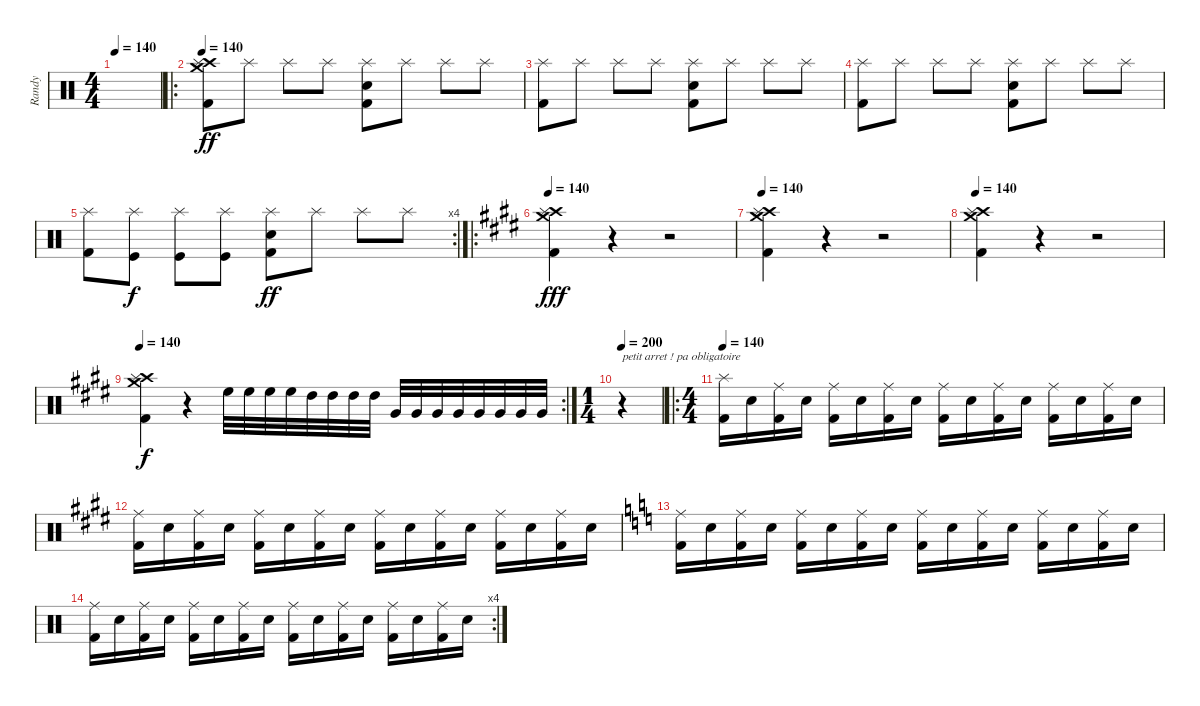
\track ("Randy" "Randy") {instrument percussion}
\staff {score}
\articulation defaults
\ts (4 4)
\tempo 140
\clef neutral
\ks c
|
\ro
\tempo 140
("Kick (hit) 2" "Crash high (hit)" "Crash medium (hit)" "Splash (hit)").8{dy ff} "Splash (hit)".8 "Splash (hit)".8 "Splash (hit)".8 ("Kick (hit) 2" "Electric Snare (hit)" "Splash (hit)").8 "Splash (hit)".8 "Splash (hit)".8 "Splash (hit)".8 |
("Kick (hit) 2" "Splash (hit)").8 "Splash (hit)".8 "Splash (hit)".8 "Splash (hit)".8 ("Kick (hit) 2" "Electric Snare (hit)" "Splash (hit)").8 "Splash (hit)".8 "Splash (hit)".8 "Splash (hit)".8 |
("Kick (hit) 2" "Splash (hit)").8 "Splash (hit)".8 "Splash (hit)".8 "Splash (hit)".8 ("Kick (hit) 2" "Electric Snare (hit)" "Splash (hit)").8 "Splash (hit)".8 "Splash (hit)".8 "Splash (hit)".8 |
\rc 4
("Kick (hit) 2" "Splash (hit)").8 ("Kick (hit)" "Splash (hit)").8{dy f} ("Kick (hit)" "Splash (hit)").8 ("Kick (hit)" "Splash (hit)").8 ("Kick (hit) 2" "Electric Snare (hit)" "Splash (hit)").8{dy ff} "Splash (hit)".8 "Splash (hit)".8 "Splash (hit)".8 |
\ro
\tempo 140
\ks e
("Crash high (hit)" "Splash (hit)" "Kick (hit) 2" "Crash medium (hit)").4{dy fff} r.4 r.2 |
\tempo 140
("Crash high (hit)" "Splash (hit)" "Kick (hit) 2" "Crash medium (hit)").4 r.4 r.2 |
\tempo 140
("Crash high (hit)" "Splash (hit)" "Kick (hit) 2" "Crash medium (hit)").4 r.4 r.2 |
\rc 2
\tempo 140
("Crash high (hit)" "Splash (hit)" "Kick (hit) 2" "Crash medium (hit)").4{dy f} r.4 "High Floor Tom (hit)".32 "High Floor Tom (hit)".32 "High Floor Tom (hit)".32 "High Floor Tom (hit)".32 "High Tom (hit)".32 "High Tom (hit)".32 "High Tom (hit)".32 "High Tom (hit)".32 "Very Low Tom (hit)".32 "Very Low Tom (hit)".32 "Very Low Tom (hit)".32 "Very Low Tom (hit)".32 "Very Low Tom (hit)".32 "Very Low Tom (hit)".32 "Very Low Tom (hit)".32 "Very Low Tom (hit)".32 |
\ts (1 4)
\tempo 200
r.4{txt "petit arret ! pa obligatoire"} |
\ro
\ts (4 4)
\tempo 140
("Splash (hit)" "Kick (hit) 2").16 "Snare (hit) 2".16 ("Ride (middle)" "Kick (hit) 2").16 "Snare (hit) 2".16 ("Ride (middle)" "Kick (hit) 2").16 "Snare (hit) 2".16 ("Ride (middle)" "Kick (hit) 2").16 "Snare (hit) 2".16 ("Ride (middle)" "Kick (hit) 2").16 "Snare (hit) 2".16 ("Ride (middle)" "Kick (hit) 2").16 "Snare (hit) 2".16 ("Ride (middle)" "Kick (hit) 2").16 "Snare (hit) 2".16 ("Ride (middle)" "Kick (hit) 2").16 "Snare (hit) 2".16 |
("Ride (middle)" "Kick (hit) 2").16 "Snare (hit) 2".16 ("Ride (middle)" "Kick (hit) 2").16 "Snare (hit) 2".16 ("Ride (middle)" "Kick (hit) 2").16 "Snare (hit) 2".16 ("Ride (middle)" "Kick (hit) 2").16 "Snare (hit) 2".16 ("Ride (middle)" "Kick (hit) 2").16 "Snare (hit) 2".16 ("Ride (middle)" "Kick (hit) 2").16 "Snare (hit) 2".16 ("Ride (middle)" "Kick (hit) 2").16 "Snare (hit) 2".16 ("Ride (middle)" "Kick (hit) 2").16 "Snare (hit) 2".16 |
\ks c
("Ride (middle)" "Kick (hit) 2").16 "Snare (hit) 2".16 ("Ride (middle)" "Kick (hit) 2").16 "Snare (hit) 2".16 ("Ride (middle)" "Kick (hit) 2").16 "Snare (hit) 2".16 ("Ride (middle)" "Kick (hit) 2").16 "Snare (hit) 2".16 ("Ride (middle)" "Kick (hit) 2").16 "Snare (hit) 2".16 ("Ride (middle)" "Kick (hit) 2").16 "Snare (hit) 2".16 ("Ride (middle)" "Kick (hit) 2").16 "Snare (hit) 2".16 ("Ride (middle)" "Kick (hit) 2").16 "Snare (hit) 2".16 |
\rc 4
("Ride (middle)" "Kick (hit) 2").16 "Snare (hit) 2".16 ("Ride (middle)" "Kick (hit) 2").16 "Snare (hit) 2".16 ("Ride (middle)" "Kick (hit) 2").16 "Snare (hit) 2".16 ("Ride (middle)" "Kick (hit) 2").16 "Snare (hit) 2".16 ("Ride (middle)" "Kick (hit) 2").16 "Snare (hit) 2".16 ("Ride (middle)" "Kick (hit) 2").16 "Snare (hit) 2".16 ("Ride (middle)" "Kick (hit) 2").16 "Snare (hit) 2".16 ("Ride (middle)" "Kick (hit) 2").16 "Snare (hit) 2".16
